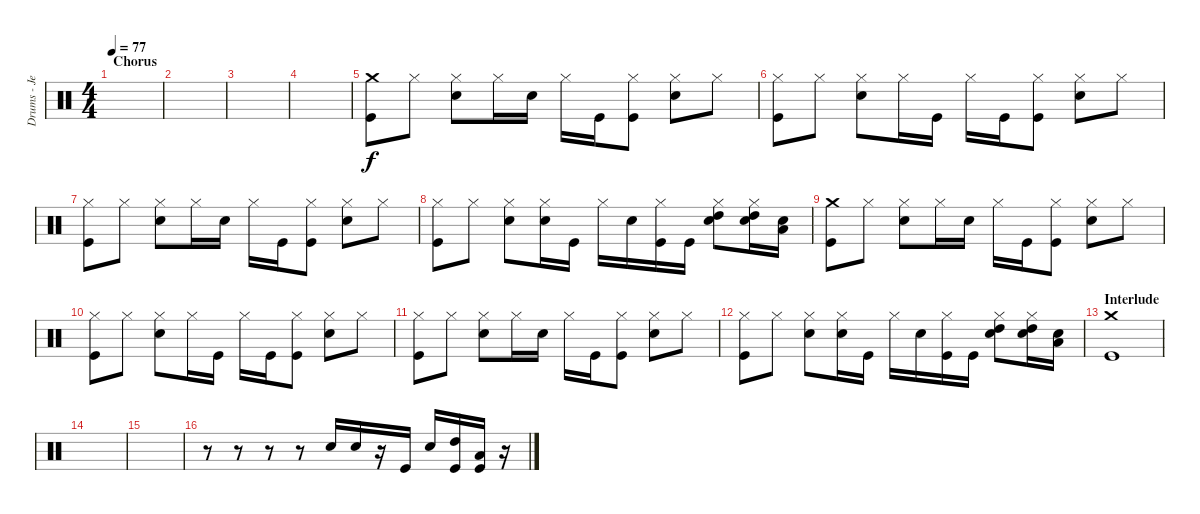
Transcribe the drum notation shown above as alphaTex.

\track ("Drums - Jeff" "Drums - Je") {instrument percussion}
\staff {score}
\articulation defaults
\ts (4 4)
\section ("" "Chorus")
\tempo 77
\clef neutral
\ks c
|
|
|
|
("Crash medium (hit)" "Kick (hit)").8 "Hi-Hat (closed)".8 ("Hi-Hat (closed)" "Electric Snare (hit)").8 "Hi-Hat (closed)".16 "Electric Snare (hit)".16 "Hi-Hat (closed)".16 "Kick (hit)".16 ("Hi-Hat (closed)" "Kick (hit)").8 ("Hi-Hat (closed)" "Electric Snare (hit)").8 "Hi-Hat (closed)".8 |
("Hi-Hat (closed)" "Kick (hit)").8 "Hi-Hat (closed)".8 ("Hi-Hat (closed)" "Electric Snare (hit)").8 "Hi-Hat (closed)".16 "Kick (hit)".16 "Hi-Hat (closed)".16 "Kick (hit)".16 ("Hi-Hat (closed)" "Kick (hit)").8 ("Hi-Hat (closed)" "Electric Snare (hit)").8 "Hi-Hat (closed)".8 |
("Hi-Hat (closed)" "Kick (hit)").8 "Hi-Hat (closed)".8 ("Hi-Hat (closed)" "Electric Snare (hit)").8 "Hi-Hat (closed)".16 "Electric Snare (hit)".16 "Hi-Hat (closed)".16 "Kick (hit)".16 ("Hi-Hat (closed)" "Kick (hit)").8 ("Hi-Hat (closed)" "Electric Snare (hit)").8 "Hi-Hat (closed)".8 |
("Hi-Hat (closed)" "Kick (hit)").8 "Hi-Hat (closed)".8 ("Hi-Hat (closed)" "Electric Snare (hit)").8 ("Hi-Hat (closed)" "Electric Snare (hit)").16 "Kick (hit)".16 "Hi-Hat (closed)".16 "Electric Snare (hit)".16 ("Hi-Hat (closed)" "Kick (hit)").16 "Kick (hit)".16 ("High Tom (hit)" "Hi-Hat (closed)" "Electric Snare (hit)").8 ("High Tom (hit)" "Hi-Hat (closed)" "Electric Snare (hit)").16 ("Low Tom (hit)" "Electric Snare (hit)").16 |
("Crash medium (hit)" "Kick (hit)").8 "Hi-Hat (closed)".8 ("Hi-Hat (closed)" "Electric Snare (hit)").8 "Hi-Hat (closed)".16 "Electric Snare (hit)".16 "Hi-Hat (closed)".16 "Kick (hit)".16 ("Hi-Hat (closed)" "Kick (hit)").8 ("Hi-Hat (closed)" "Electric Snare (hit)").8 "Hi-Hat (closed)".8 |
("Hi-Hat (closed)" "Kick (hit)").8 "Hi-Hat (closed)".8 ("Hi-Hat (closed)" "Electric Snare (hit)").8 "Hi-Hat (closed)".16 "Kick (hit)".16 "Hi-Hat (closed)".16 "Kick (hit)".16 ("Hi-Hat (closed)" "Kick (hit)").8 ("Hi-Hat (closed)" "Electric Snare (hit)").8 "Hi-Hat (closed)".8 |
("Hi-Hat (closed)" "Kick (hit)").8 "Hi-Hat (closed)".8 ("Hi-Hat (closed)" "Electric Snare (hit)").8 "Hi-Hat (closed)".16 "Electric Snare (hit)".16 "Hi-Hat (closed)".16 "Kick (hit)".16 ("Hi-Hat (closed)" "Kick (hit)").8 ("Hi-Hat (closed)" "Electric Snare (hit)").8 "Hi-Hat (closed)".8 |
("Hi-Hat (closed)" "Kick (hit)").8 "Hi-Hat (closed)".8 ("Hi-Hat (closed)" "Electric Snare (hit)").8 ("Hi-Hat (closed)" "Electric Snare (hit)").16 "Kick (hit)".16 "Hi-Hat (closed)".16 "Electric Snare (hit)".16 ("Hi-Hat (closed)" "Kick (hit)").16 "Kick (hit)".16 ("High Tom (hit)" "Hi-Hat (closed)" "Electric Snare (hit)").8 ("High Tom (hit)" "Hi-Hat (closed)" "Electric Snare (hit)").16 ("Low Tom (hit)" "Electric Snare (hit)").16 |
\section ("" "Interlude")
("Crash medium (hit)" "Kick (hit)").1 |
|
|
r.8 r.8 r.8 r.8 "Electric Snare (hit)".16 "Electric Snare (hit)".16 r.16 "Kick (hit)".16 "Electric Snare (hit)".16 ("High Tom (hit)" "Kick (hit)").16 ("Low Tom (hit)" "Kick (hit)").16 r.16
